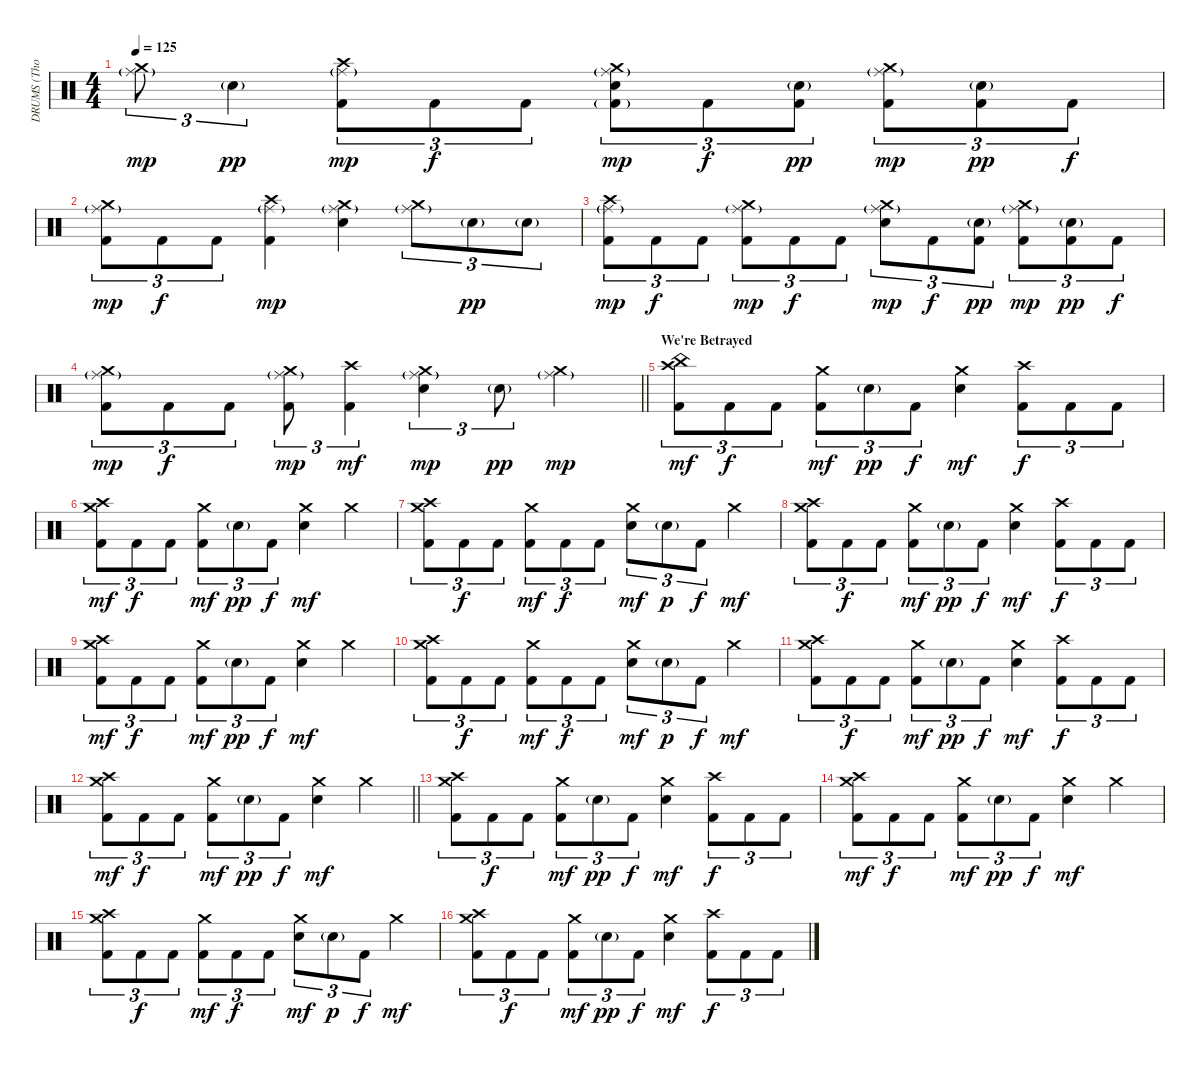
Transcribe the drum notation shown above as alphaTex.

\track ("DRUMS (Thomas Haake)" "DRUMS (Tho") {instrument percussion}
\staff {score}
\articulation defaults
\ts (4 4)
\tempo 125
\clef neutral
\ks c
("Crash medium (hit)" "Ride (middle)"{g}).8{tu (3 2) dy mp} "Electric Snare (hit)"{g}.4{tu (3 2) dy pp} ("Crash high (hit)" "Ride (middle)"{g} "Kick (hit) 2").8{tu (3 2) dy mp} "Kick (hit) 2".8{tu (3 2) dy f} "Kick (hit) 2".8{tu (3 2)} ("Crash medium (hit)" "Ride (middle)"{g} "Electric Snare (hit)" "Kick (hit) 2"{g}).8{tu (3 2) dy mp} "Kick (hit) 2".8{tu (3 2) dy f} ("Electric Snare (hit)"{g} "Kick (hit) 2").8{tu (3 2) dy pp} ("Crash medium (hit)" "Ride (middle)"{g} "Kick (hit) 2").8{tu (3 2) dy mp} ("Electric Snare (hit)"{g} "Kick (hit) 2").8{tu (3 2) dy pp} "Kick (hit) 2".8{tu (3 2) dy f} |
("Crash medium (hit)" "Ride (middle)"{g} "Kick (hit) 2").8{tu (3 2) dy mp} "Kick (hit) 2".8{tu (3 2) dy f} "Kick (hit) 2".8{tu (3 2)} ("Crash high (hit)" "Ride (middle)"{g} "Kick (hit) 2").4{dy mp} ("Crash medium (hit)" "Ride (middle)"{g} "Electric Snare (hit)").4 ("Crash medium (hit)" "Ride (middle)"{g}).8{tu (3 2)} "Electric Snare (hit)"{g}.8{tu (3 2) dy pp} "Electric Snare (hit)"{g}.8{tu (3 2)} |
("Crash high (hit)" "Ride (middle)"{g} "Kick (hit) 2").8{tu (3 2) dy mp} "Kick (hit) 2".8{tu (3 2) dy f} "Kick (hit) 2".8{tu (3 2)} ("Crash medium (hit)" "Ride (middle)"{g} "Kick (hit) 2").8{tu (3 2) dy mp} "Kick (hit) 2".8{tu (3 2) dy f} "Kick (hit) 2".8{tu (3 2)} ("Crash medium (hit)" "Ride (middle)"{g} "Electric Snare (hit)").8{tu (3 2) dy mp} "Kick (hit) 2".8{tu (3 2) dy f} ("Electric Snare (hit)"{g} "Kick (hit) 2").8{tu (3 2) dy pp} ("Crash medium (hit)" "Ride (middle)"{g} "Kick (hit) 2").8{tu (3 2) dy mp} ("Electric Snare (hit)"{g} "Kick (hit) 2").8{tu (3 2) dy pp} "Kick (hit) 2".8{tu (3 2) dy f} |
\barLineRight lightlight
("Crash medium (hit)" "Ride (middle)"{g} "Kick (hit) 2").8{tu (3 2) dy mp} "Kick (hit) 2".8{tu (3 2) dy f} "Kick (hit) 2".8{tu (3 2)} ("Crash medium (hit)" "Ride (middle)"{g} "Kick (hit) 2").8{tu (3 2) dy mp} ("Crash high (hit)" "Kick (hit) 2").4{tu (3 2) dy mf} ("Crash medium (hit)" "Ride (middle)"{g} "Electric Snare (hit)").4{tu (3 2) dy mp} "Electric Snare (hit)"{g}.8{tu (3 2) dy pp} ("Crash medium (hit)" "Ride (middle)"{g}).4{dy mp} |
\section ("" "We're Betrayed")
("China (hit)" "Crash high (hit)" "Kick (hit) 2").8{tu (3 2) dy mf} "Kick (hit) 2".8{tu (3 2) dy f} "Kick (hit) 2".8{tu (3 2)} ("Crash medium (hit)" "Kick (hit) 2").8{tu (3 2) dy mf} "Electric Snare (hit)"{g}.8{tu (3 2) dy pp} "Kick (hit) 2".8{tu (3 2) dy f} ("Crash medium (hit)" "Electric Snare (hit)").4{dy mf} ("Crash high (hit)" "Kick (hit) 2").8{tu (3 2) dy f} "Kick (hit) 2".8{tu (3 2)} "Kick (hit) 2".8{tu (3 2)} |
("Crash medium (hit)" "Crash high (hit)" "Kick (hit) 2").8{tu (3 2) dy mf} "Kick (hit) 2".8{tu (3 2) dy f} "Kick (hit) 2".8{tu (3 2)} ("Crash medium (hit)" "Kick (hit) 2").8{tu (3 2) dy mf} "Electric Snare (hit)"{g}.8{tu (3 2) dy pp} "Kick (hit) 2".8{tu (3 2) dy f} ("Crash medium (hit)" "Electric Snare (hit)").4{dy mf} "Crash medium (hit)".4 |
("Crash medium (hit)" "Crash high (hit)" "Kick (hit) 2").8{tu (3 2)} "Kick (hit) 2".8{tu (3 2) dy f} "Kick (hit) 2".8{tu (3 2)} ("Crash medium (hit)" "Kick (hit) 2").8{tu (3 2) dy mf} "Kick (hit) 2".8{tu (3 2) dy f} "Kick (hit) 2".8{tu (3 2)} ("Crash medium (hit)" "Electric Snare (hit)").8{tu (3 2) dy mf} "Electric Snare (hit)"{g}.8{tu (3 2) dy p} "Kick (hit) 2".8{tu (3 2) dy f} "Crash medium (hit)".4{dy mf} |
("Crash medium (hit)" "Crash high (hit)" "Kick (hit) 2").8{tu (3 2)} "Kick (hit) 2".8{tu (3 2) dy f} "Kick (hit) 2".8{tu (3 2)} ("Crash medium (hit)" "Kick (hit) 2").8{tu (3 2) dy mf} "Electric Snare (hit)"{g}.8{tu (3 2) dy pp} "Kick (hit) 2".8{tu (3 2) dy f} ("Crash medium (hit)" "Electric Snare (hit)").4{dy mf} ("Crash high (hit)" "Kick (hit) 2").8{tu (3 2) dy f} "Kick (hit) 2".8{tu (3 2)} "Kick (hit) 2".8{tu (3 2)} |
("Crash medium (hit)" "Crash high (hit)" "Kick (hit) 2").8{tu (3 2) dy mf} "Kick (hit) 2".8{tu (3 2) dy f} "Kick (hit) 2".8{tu (3 2)} ("Crash medium (hit)" "Kick (hit) 2").8{tu (3 2) dy mf} "Electric Snare (hit)"{g}.8{tu (3 2) dy pp} "Kick (hit) 2".8{tu (3 2) dy f} ("Crash medium (hit)" "Electric Snare (hit)").4{dy mf} "Crash medium (hit)".4 |
("Crash medium (hit)" "Crash high (hit)" "Kick (hit) 2").8{tu (3 2)} "Kick (hit) 2".8{tu (3 2) dy f} "Kick (hit) 2".8{tu (3 2)} ("Crash medium (hit)" "Kick (hit) 2").8{tu (3 2) dy mf} "Kick (hit) 2".8{tu (3 2) dy f} "Kick (hit) 2".8{tu (3 2)} ("Crash medium (hit)" "Electric Snare (hit)").8{tu (3 2) dy mf} "Electric Snare (hit)"{g}.8{tu (3 2) dy p} "Kick (hit) 2".8{tu (3 2) dy f} "Crash medium (hit)".4{dy mf} |
("Crash medium (hit)" "Crash high (hit)" "Kick (hit) 2").8{tu (3 2)} "Kick (hit) 2".8{tu (3 2) dy f} "Kick (hit) 2".8{tu (3 2)} ("Crash medium (hit)" "Kick (hit) 2").8{tu (3 2) dy mf} "Electric Snare (hit)"{g}.8{tu (3 2) dy pp} "Kick (hit) 2".8{tu (3 2) dy f} ("Crash medium (hit)" "Electric Snare (hit)").4{dy mf} ("Crash high (hit)" "Kick (hit) 2").8{tu (3 2) dy f} "Kick (hit) 2".8{tu (3 2)} "Kick (hit) 2".8{tu (3 2)} |
\barLineRight lightlight
("Crash medium (hit)" "Crash high (hit)" "Kick (hit) 2").8{tu (3 2) dy mf} "Kick (hit) 2".8{tu (3 2) dy f} "Kick (hit) 2".8{tu (3 2)} ("Crash medium (hit)" "Kick (hit) 2").8{tu (3 2) dy mf} "Electric Snare (hit)"{g}.8{tu (3 2) dy pp} "Kick (hit) 2".8{tu (3 2) dy f} ("Crash medium (hit)" "Electric Snare (hit)").4{dy mf} "Crash medium (hit)".4 |
("Crash medium (hit)" "Crash high (hit)" "Kick (hit) 2").8{tu (3 2)} "Kick (hit) 2".8{tu (3 2) dy f} "Kick (hit) 2".8{tu (3 2)} ("Crash medium (hit)" "Kick (hit) 2").8{tu (3 2) dy mf} "Electric Snare (hit)"{g}.8{tu (3 2) dy pp} "Kick (hit) 2".8{tu (3 2) dy f} ("Crash medium (hit)" "Electric Snare (hit)").4{dy mf} ("Crash high (hit)" "Kick (hit) 2").8{tu (3 2) dy f} "Kick (hit) 2".8{tu (3 2)} "Kick (hit) 2".8{tu (3 2)} |
("Crash medium (hit)" "Crash high (hit)" "Kick (hit) 2").8{tu (3 2) dy mf} "Kick (hit) 2".8{tu (3 2) dy f} "Kick (hit) 2".8{tu (3 2)} ("Crash medium (hit)" "Kick (hit) 2").8{tu (3 2) dy mf} "Electric Snare (hit)"{g}.8{tu (3 2) dy pp} "Kick (hit) 2".8{tu (3 2) dy f} ("Crash medium (hit)" "Electric Snare (hit)").4{dy mf} "Crash medium (hit)".4 |
("Crash medium (hit)" "Crash high (hit)" "Kick (hit) 2").8{tu (3 2)} "Kick (hit) 2".8{tu (3 2) dy f} "Kick (hit) 2".8{tu (3 2)} ("Crash medium (hit)" "Kick (hit) 2").8{tu (3 2) dy mf} "Kick (hit) 2".8{tu (3 2) dy f} "Kick (hit) 2".8{tu (3 2)} ("Crash medium (hit)" "Electric Snare (hit)").8{tu (3 2) dy mf} "Electric Snare (hit)"{g}.8{tu (3 2) dy p} "Kick (hit) 2".8{tu (3 2) dy f} "Crash medium (hit)".4{dy mf} |
("Crash medium (hit)" "Crash high (hit)" "Kick (hit) 2").8{tu (3 2)} "Kick (hit) 2".8{tu (3 2) dy f} "Kick (hit) 2".8{tu (3 2)} ("Crash medium (hit)" "Kick (hit) 2").8{tu (3 2) dy mf} "Electric Snare (hit)"{g}.8{tu (3 2) dy pp} "Kick (hit) 2".8{tu (3 2) dy f} ("Crash medium (hit)" "Electric Snare (hit)").4{dy mf} ("Crash high (hit)" "Kick (hit) 2").8{tu (3 2) dy f} "Kick (hit) 2".8{tu (3 2)} "Kick (hit) 2".8{tu (3 2)}
